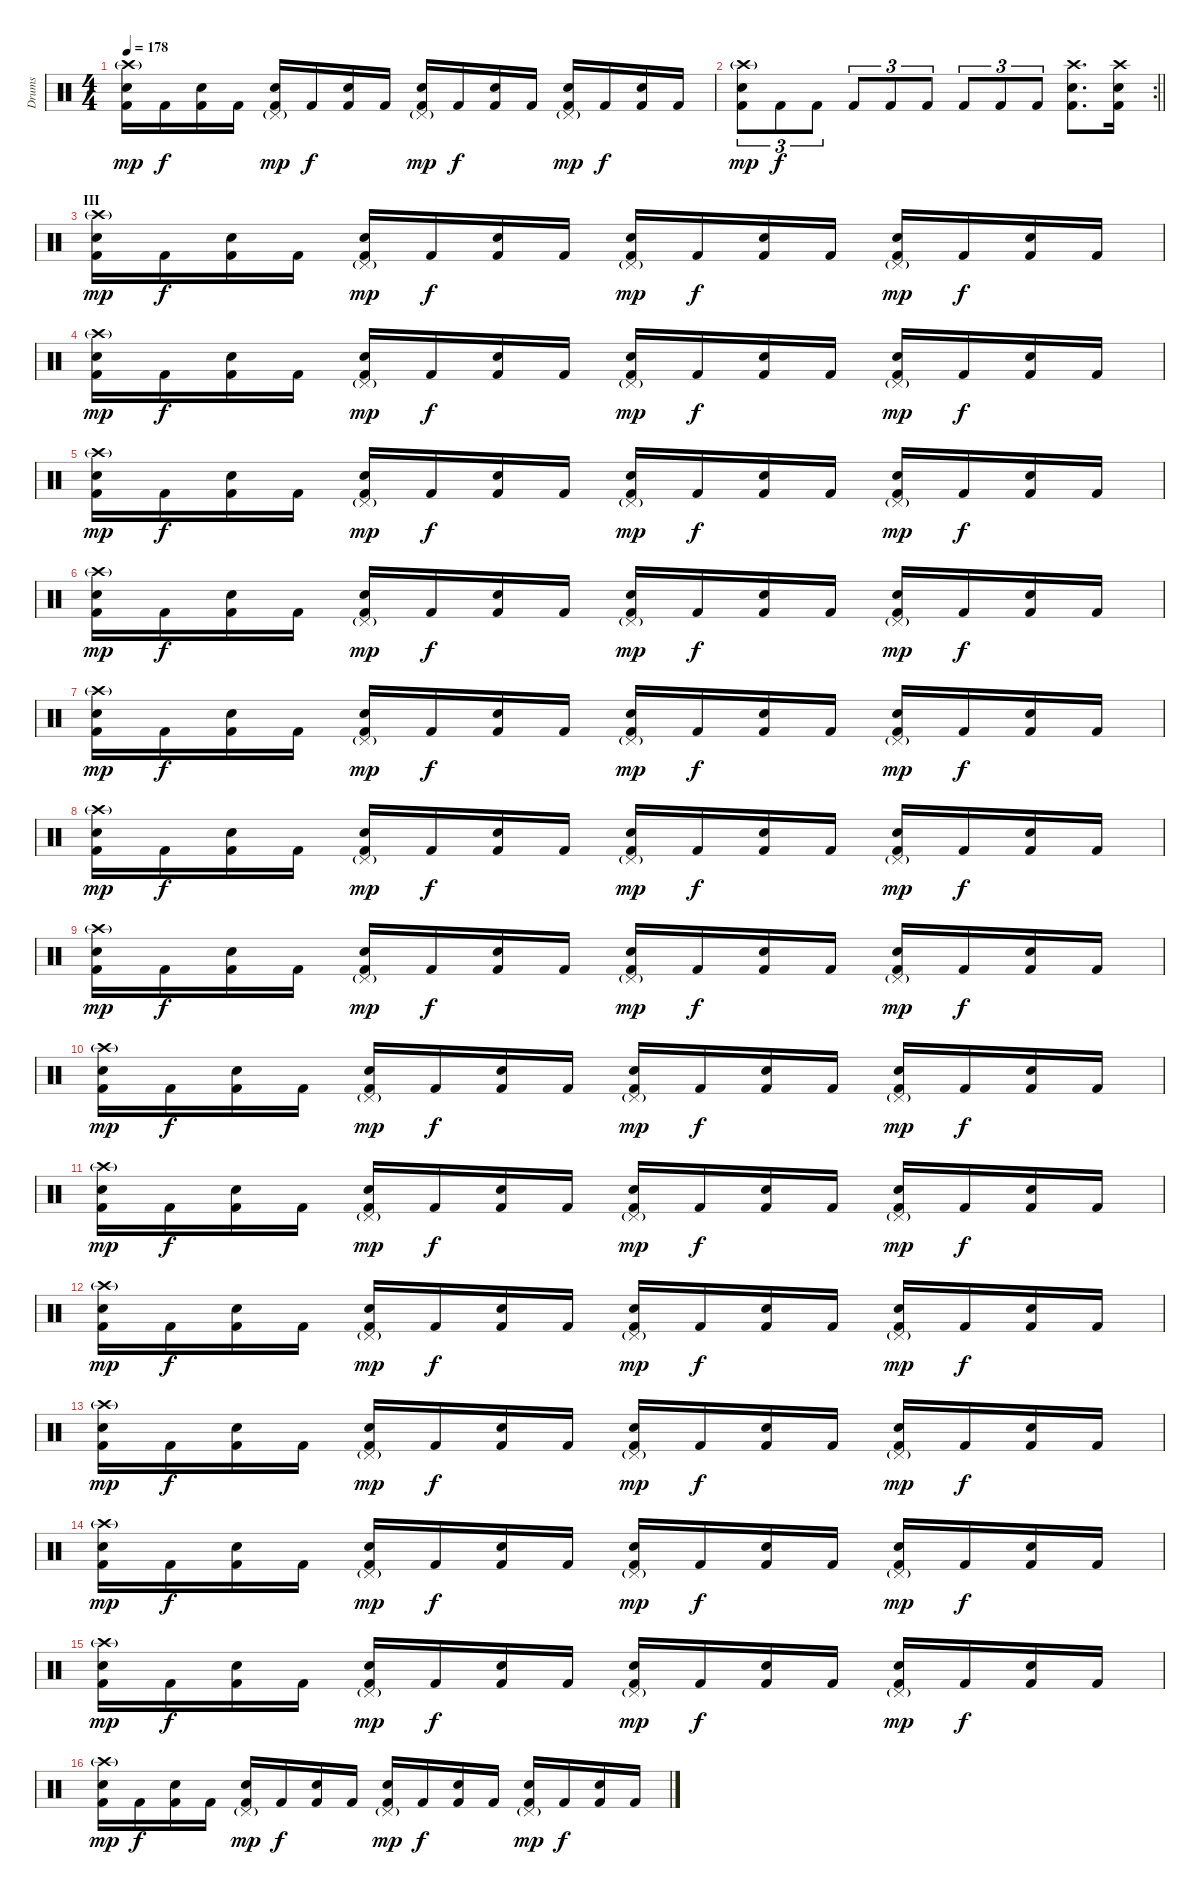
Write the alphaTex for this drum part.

\track ("Drums" "Drums") {instrument percussion}
\staff {score}
\articulation defaults
\ts (4 4)
\tempo 178
\clef neutral
\ks c
("Crash high (hit)"{g} "Electric Snare (hit)" "Kick (hit) 2").16{dy mp} "Kick (hit) 2".16{dy f} ("Electric Snare (hit)" "Kick (hit) 2").16 "Kick (hit) 2".16 ("Pedal Hi-Hat (hit)"{g} "Electric Snare (hit)" "Kick (hit) 2").16{dy mp} "Kick (hit) 2".16{dy f} ("Electric Snare (hit)" "Kick (hit) 2").16 "Kick (hit) 2".16 ("Pedal Hi-Hat (hit)"{g} "Electric Snare (hit)" "Kick (hit) 2").16{dy mp} "Kick (hit) 2".16{dy f} ("Electric Snare (hit)" "Kick (hit) 2").16 "Kick (hit) 2".16 ("Pedal Hi-Hat (hit)"{g} "Electric Snare (hit)" "Kick (hit) 2").16{dy mp} "Kick (hit) 2".16{dy f} ("Electric Snare (hit)" "Kick (hit) 2").16 "Kick (hit) 2".16 |
\rc 2
\barLineRight lightlight
("Crash high (hit)"{g} "Electric Snare (hit)" "Kick (hit) 2").8{tu (3 2) dy mp} "Kick (hit) 2".8{tu (3 2) dy f} "Kick (hit) 2".8{tu (3 2)} "Kick (hit) 2".8{tu (3 2)} "Kick (hit) 2".8{tu (3 2)} "Kick (hit) 2".8{tu (3 2)} "Kick (hit) 2".8{tu (3 2)} "Kick (hit) 2".8{tu (3 2)} "Kick (hit) 2".8{tu (3 2)} ("Crash high (hit)" "Electric Snare (hit)" "Kick (hit) 2").8{d} ("Crash high (hit)" "Electric Snare (hit)" "Kick (hit) 2").16 |
\section ("" "III")
("Crash high (hit)"{g} "Electric Snare (hit)" "Kick (hit) 2").16{dy mp} "Kick (hit) 2".16{dy f} ("Electric Snare (hit)" "Kick (hit) 2").16 "Kick (hit) 2".16 ("Pedal Hi-Hat (hit)"{g} "Electric Snare (hit)" "Kick (hit) 2").16{dy mp} "Kick (hit) 2".16{dy f} ("Electric Snare (hit)" "Kick (hit) 2").16 "Kick (hit) 2".16 ("Pedal Hi-Hat (hit)"{g} "Electric Snare (hit)" "Kick (hit) 2").16{dy mp} "Kick (hit) 2".16{dy f} ("Electric Snare (hit)" "Kick (hit) 2").16 "Kick (hit) 2".16 ("Pedal Hi-Hat (hit)"{g} "Electric Snare (hit)" "Kick (hit) 2").16{dy mp} "Kick (hit) 2".16{dy f} ("Electric Snare (hit)" "Kick (hit) 2").16 "Kick (hit) 2".16 |
("Crash high (hit)"{g} "Electric Snare (hit)" "Kick (hit) 2").16{dy mp} "Kick (hit) 2".16{dy f} ("Electric Snare (hit)" "Kick (hit) 2").16 "Kick (hit) 2".16 ("Pedal Hi-Hat (hit)"{g} "Electric Snare (hit)" "Kick (hit) 2").16{dy mp} "Kick (hit) 2".16{dy f} ("Electric Snare (hit)" "Kick (hit) 2").16 "Kick (hit) 2".16 ("Pedal Hi-Hat (hit)"{g} "Electric Snare (hit)" "Kick (hit) 2").16{dy mp} "Kick (hit) 2".16{dy f} ("Electric Snare (hit)" "Kick (hit) 2").16 "Kick (hit) 2".16 ("Pedal Hi-Hat (hit)"{g} "Electric Snare (hit)" "Kick (hit) 2").16{dy mp} "Kick (hit) 2".16{dy f} ("Electric Snare (hit)" "Kick (hit) 2").16 "Kick (hit) 2".16 |
("Crash high (hit)"{g} "Electric Snare (hit)" "Kick (hit) 2").16{dy mp} "Kick (hit) 2".16{dy f} ("Electric Snare (hit)" "Kick (hit) 2").16 "Kick (hit) 2".16 ("Pedal Hi-Hat (hit)"{g} "Electric Snare (hit)" "Kick (hit) 2").16{dy mp} "Kick (hit) 2".16{dy f} ("Electric Snare (hit)" "Kick (hit) 2").16 "Kick (hit) 2".16 ("Pedal Hi-Hat (hit)"{g} "Electric Snare (hit)" "Kick (hit) 2").16{dy mp} "Kick (hit) 2".16{dy f} ("Electric Snare (hit)" "Kick (hit) 2").16 "Kick (hit) 2".16 ("Pedal Hi-Hat (hit)"{g} "Electric Snare (hit)" "Kick (hit) 2").16{dy mp} "Kick (hit) 2".16{dy f} ("Electric Snare (hit)" "Kick (hit) 2").16 "Kick (hit) 2".16 |
("Crash high (hit)"{g} "Electric Snare (hit)" "Kick (hit) 2").16{dy mp} "Kick (hit) 2".16{dy f} ("Electric Snare (hit)" "Kick (hit) 2").16 "Kick (hit) 2".16 ("Pedal Hi-Hat (hit)"{g} "Electric Snare (hit)" "Kick (hit) 2").16{dy mp} "Kick (hit) 2".16{dy f} ("Electric Snare (hit)" "Kick (hit) 2").16 "Kick (hit) 2".16 ("Pedal Hi-Hat (hit)"{g} "Electric Snare (hit)" "Kick (hit) 2").16{dy mp} "Kick (hit) 2".16{dy f} ("Electric Snare (hit)" "Kick (hit) 2").16 "Kick (hit) 2".16 ("Pedal Hi-Hat (hit)"{g} "Electric Snare (hit)" "Kick (hit) 2").16{dy mp} "Kick (hit) 2".16{dy f} ("Electric Snare (hit)" "Kick (hit) 2").16 "Kick (hit) 2".16 |
("Crash high (hit)"{g} "Electric Snare (hit)" "Kick (hit) 2").16{dy mp} "Kick (hit) 2".16{dy f} ("Electric Snare (hit)" "Kick (hit) 2").16 "Kick (hit) 2".16 ("Pedal Hi-Hat (hit)"{g} "Electric Snare (hit)" "Kick (hit) 2").16{dy mp} "Kick (hit) 2".16{dy f} ("Electric Snare (hit)" "Kick (hit) 2").16 "Kick (hit) 2".16 ("Pedal Hi-Hat (hit)"{g} "Electric Snare (hit)" "Kick (hit) 2").16{dy mp} "Kick (hit) 2".16{dy f} ("Electric Snare (hit)" "Kick (hit) 2").16 "Kick (hit) 2".16 ("Pedal Hi-Hat (hit)"{g} "Electric Snare (hit)" "Kick (hit) 2").16{dy mp} "Kick (hit) 2".16{dy f} ("Electric Snare (hit)" "Kick (hit) 2").16 "Kick (hit) 2".16 |
("Crash high (hit)"{g} "Electric Snare (hit)" "Kick (hit) 2").16{dy mp} "Kick (hit) 2".16{dy f} ("Electric Snare (hit)" "Kick (hit) 2").16 "Kick (hit) 2".16 ("Pedal Hi-Hat (hit)"{g} "Electric Snare (hit)" "Kick (hit) 2").16{dy mp} "Kick (hit) 2".16{dy f} ("Electric Snare (hit)" "Kick (hit) 2").16 "Kick (hit) 2".16 ("Pedal Hi-Hat (hit)"{g} "Electric Snare (hit)" "Kick (hit) 2").16{dy mp} "Kick (hit) 2".16{dy f} ("Electric Snare (hit)" "Kick (hit) 2").16 "Kick (hit) 2".16 ("Pedal Hi-Hat (hit)"{g} "Electric Snare (hit)" "Kick (hit) 2").16{dy mp} "Kick (hit) 2".16{dy f} ("Electric Snare (hit)" "Kick (hit) 2").16 "Kick (hit) 2".16 |
("Crash high (hit)"{g} "Electric Snare (hit)" "Kick (hit) 2").16{dy mp} "Kick (hit) 2".16{dy f} ("Electric Snare (hit)" "Kick (hit) 2").16 "Kick (hit) 2".16 ("Pedal Hi-Hat (hit)"{g} "Electric Snare (hit)" "Kick (hit) 2").16{dy mp} "Kick (hit) 2".16{dy f} ("Electric Snare (hit)" "Kick (hit) 2").16 "Kick (hit) 2".16 ("Pedal Hi-Hat (hit)"{g} "Electric Snare (hit)" "Kick (hit) 2").16{dy mp} "Kick (hit) 2".16{dy f} ("Electric Snare (hit)" "Kick (hit) 2").16 "Kick (hit) 2".16 ("Pedal Hi-Hat (hit)"{g} "Electric Snare (hit)" "Kick (hit) 2").16{dy mp} "Kick (hit) 2".16{dy f} ("Electric Snare (hit)" "Kick (hit) 2").16 "Kick (hit) 2".16 |
("Crash high (hit)"{g} "Electric Snare (hit)" "Kick (hit) 2").16{dy mp} "Kick (hit) 2".16{dy f} ("Electric Snare (hit)" "Kick (hit) 2").16 "Kick (hit) 2".16 ("Pedal Hi-Hat (hit)"{g} "Electric Snare (hit)" "Kick (hit) 2").16{dy mp} "Kick (hit) 2".16{dy f} ("Electric Snare (hit)" "Kick (hit) 2").16 "Kick (hit) 2".16 ("Pedal Hi-Hat (hit)"{g} "Electric Snare (hit)" "Kick (hit) 2").16{dy mp} "Kick (hit) 2".16{dy f} ("Electric Snare (hit)" "Kick (hit) 2").16 "Kick (hit) 2".16 ("Pedal Hi-Hat (hit)"{g} "Electric Snare (hit)" "Kick (hit) 2").16{dy mp} "Kick (hit) 2".16{dy f} ("Electric Snare (hit)" "Kick (hit) 2").16 "Kick (hit) 2".16 |
("Crash high (hit)"{g} "Electric Snare (hit)" "Kick (hit) 2").16{dy mp} "Kick (hit) 2".16{dy f} ("Electric Snare (hit)" "Kick (hit) 2").16 "Kick (hit) 2".16 ("Pedal Hi-Hat (hit)"{g} "Electric Snare (hit)" "Kick (hit) 2").16{dy mp} "Kick (hit) 2".16{dy f} ("Electric Snare (hit)" "Kick (hit) 2").16 "Kick (hit) 2".16 ("Pedal Hi-Hat (hit)"{g} "Electric Snare (hit)" "Kick (hit) 2").16{dy mp} "Kick (hit) 2".16{dy f} ("Electric Snare (hit)" "Kick (hit) 2").16 "Kick (hit) 2".16 ("Pedal Hi-Hat (hit)"{g} "Electric Snare (hit)" "Kick (hit) 2").16{dy mp} "Kick (hit) 2".16{dy f} ("Electric Snare (hit)" "Kick (hit) 2").16 "Kick (hit) 2".16 |
("Crash high (hit)"{g} "Electric Snare (hit)" "Kick (hit) 2").16{dy mp} "Kick (hit) 2".16{dy f} ("Electric Snare (hit)" "Kick (hit) 2").16 "Kick (hit) 2".16 ("Pedal Hi-Hat (hit)"{g} "Electric Snare (hit)" "Kick (hit) 2").16{dy mp} "Kick (hit) 2".16{dy f} ("Electric Snare (hit)" "Kick (hit) 2").16 "Kick (hit) 2".16 ("Pedal Hi-Hat (hit)"{g} "Electric Snare (hit)" "Kick (hit) 2").16{dy mp} "Kick (hit) 2".16{dy f} ("Electric Snare (hit)" "Kick (hit) 2").16 "Kick (hit) 2".16 ("Pedal Hi-Hat (hit)"{g} "Electric Snare (hit)" "Kick (hit) 2").16{dy mp} "Kick (hit) 2".16{dy f} ("Electric Snare (hit)" "Kick (hit) 2").16 "Kick (hit) 2".16 |
("Crash high (hit)"{g} "Electric Snare (hit)" "Kick (hit) 2").16{dy mp} "Kick (hit) 2".16{dy f} ("Electric Snare (hit)" "Kick (hit) 2").16 "Kick (hit) 2".16 ("Pedal Hi-Hat (hit)"{g} "Electric Snare (hit)" "Kick (hit) 2").16{dy mp} "Kick (hit) 2".16{dy f} ("Electric Snare (hit)" "Kick (hit) 2").16 "Kick (hit) 2".16 ("Pedal Hi-Hat (hit)"{g} "Electric Snare (hit)" "Kick (hit) 2").16{dy mp} "Kick (hit) 2".16{dy f} ("Electric Snare (hit)" "Kick (hit) 2").16 "Kick (hit) 2".16 ("Pedal Hi-Hat (hit)"{g} "Electric Snare (hit)" "Kick (hit) 2").16{dy mp} "Kick (hit) 2".16{dy f} ("Electric Snare (hit)" "Kick (hit) 2").16 "Kick (hit) 2".16 |
("Crash high (hit)"{g} "Electric Snare (hit)" "Kick (hit) 2").16{dy mp} "Kick (hit) 2".16{dy f} ("Electric Snare (hit)" "Kick (hit) 2").16 "Kick (hit) 2".16 ("Pedal Hi-Hat (hit)"{g} "Electric Snare (hit)" "Kick (hit) 2").16{dy mp} "Kick (hit) 2".16{dy f} ("Electric Snare (hit)" "Kick (hit) 2").16 "Kick (hit) 2".16 ("Pedal Hi-Hat (hit)"{g} "Electric Snare (hit)" "Kick (hit) 2").16{dy mp} "Kick (hit) 2".16{dy f} ("Electric Snare (hit)" "Kick (hit) 2").16 "Kick (hit) 2".16 ("Pedal Hi-Hat (hit)"{g} "Electric Snare (hit)" "Kick (hit) 2").16{dy mp} "Kick (hit) 2".16{dy f} ("Electric Snare (hit)" "Kick (hit) 2").16 "Kick (hit) 2".16 |
("Crash high (hit)"{g} "Electric Snare (hit)" "Kick (hit) 2").16{dy mp} "Kick (hit) 2".16{dy f} ("Electric Snare (hit)" "Kick (hit) 2").16 "Kick (hit) 2".16 ("Pedal Hi-Hat (hit)"{g} "Electric Snare (hit)" "Kick (hit) 2").16{dy mp} "Kick (hit) 2".16{dy f} ("Electric Snare (hit)" "Kick (hit) 2").16 "Kick (hit) 2".16 ("Pedal Hi-Hat (hit)"{g} "Electric Snare (hit)" "Kick (hit) 2").16{dy mp} "Kick (hit) 2".16{dy f} ("Electric Snare (hit)" "Kick (hit) 2").16 "Kick (hit) 2".16 ("Pedal Hi-Hat (hit)"{g} "Electric Snare (hit)" "Kick (hit) 2").16{dy mp} "Kick (hit) 2".16{dy f} ("Electric Snare (hit)" "Kick (hit) 2").16 "Kick (hit) 2".16 |
("Crash high (hit)"{g} "Electric Snare (hit)" "Kick (hit) 2").16{dy mp} "Kick (hit) 2".16{dy f} ("Electric Snare (hit)" "Kick (hit) 2").16 "Kick (hit) 2".16 ("Pedal Hi-Hat (hit)"{g} "Electric Snare (hit)" "Kick (hit) 2").16{dy mp} "Kick (hit) 2".16{dy f} ("Electric Snare (hit)" "Kick (hit) 2").16 "Kick (hit) 2".16 ("Pedal Hi-Hat (hit)"{g} "Electric Snare (hit)" "Kick (hit) 2").16{dy mp} "Kick (hit) 2".16{dy f} ("Electric Snare (hit)" "Kick (hit) 2").16 "Kick (hit) 2".16 ("Pedal Hi-Hat (hit)"{g} "Electric Snare (hit)" "Kick (hit) 2").16{dy mp} "Kick (hit) 2".16{dy f} ("Electric Snare (hit)" "Kick (hit) 2").16 "Kick (hit) 2".16
